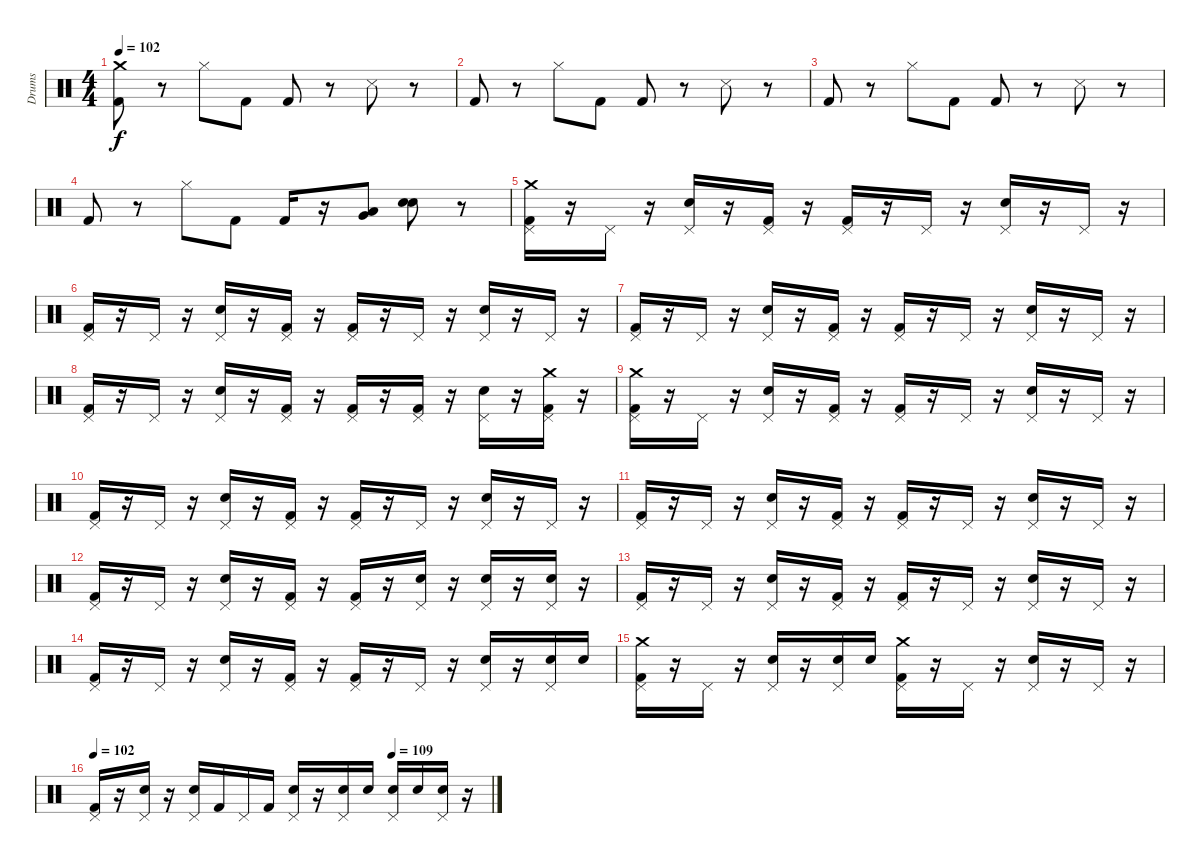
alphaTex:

\track ("Drums" "Drums") {instrument percussion}
\staff {score}
\articulation defaults
\ts (4 4)
\tempo 102
\clef neutral
\ks c
("Crash medium (hit)" "Kick (hit) 2").8{dy f} r.8 "Hi-Hat (closed)".8 "Kick (hit) 2".8 "Kick (hit) 2".8 r.8 "Snare (side stick) 3".8 r.8 |
"Kick (hit) 2".8 r.8 "Hi-Hat (closed)".8 "Kick (hit) 2".8 "Kick (hit) 2".8 r.8 "Snare (side stick) 3".8 r.8 |
"Kick (hit) 2".8 r.8 "Hi-Hat (closed)".8 "Kick (hit) 2".8 "Kick (hit) 2".8 r.8 "Snare (side stick) 3".8 r.8 |
"Kick (hit) 2".8 r.8 "Hi-Hat (closed)".8 "Kick (hit) 2".8 "Kick (hit) 2".16 r.16 ("Low Tom (hit)" "Very Low Tom (hit)").8 ("Electric Snare (hit)" "Snare (hit) 2").8 r.8 |
("Crash medium (hit)" "Pedal Hi-Hat (hit)" "Kick (hit) 2").16 r.16 "Pedal Hi-Hat (hit)".16 r.16 ("Pedal Hi-Hat (hit)" "Electric Snare (hit)").16 r.16 ("Kick (hit) 2" "Pedal Hi-Hat (hit)").16 r.16 ("Pedal Hi-Hat (hit)" "Kick (hit) 2").16 r.16 "Pedal Hi-Hat (hit)".16 r.16 ("Electric Snare (hit)" "Pedal Hi-Hat (hit)").16 r.16 "Pedal Hi-Hat (hit)".16 r.16 |
("Pedal Hi-Hat (hit)" "Kick (hit) 2").16 r.16 "Pedal Hi-Hat (hit)".16 r.16 ("Electric Snare (hit)" "Pedal Hi-Hat (hit)").16 r.16 ("Kick (hit) 2" "Pedal Hi-Hat (hit)").16 r.16 ("Kick (hit) 2" "Pedal Hi-Hat (hit)").16 r.16 "Pedal Hi-Hat (hit)".16 r.16 ("Pedal Hi-Hat (hit)" "Electric Snare (hit)").16 r.16 "Pedal Hi-Hat (hit)".16 r.16 |
("Kick (hit) 2" "Pedal Hi-Hat (hit)").16 r.16 "Pedal Hi-Hat (hit)".16 r.16 ("Pedal Hi-Hat (hit)" "Electric Snare (hit)").16 r.16 ("Pedal Hi-Hat (hit)" "Kick (hit) 2").16 r.16 ("Kick (hit) 2" "Pedal Hi-Hat (hit)").16 r.16 "Pedal Hi-Hat (hit)".16 r.16 ("Electric Snare (hit)" "Pedal Hi-Hat (hit)").16 r.16 "Pedal Hi-Hat (hit)".16 r.16 |
("Kick (hit) 2" "Pedal Hi-Hat (hit)").16 r.16 "Pedal Hi-Hat (hit)".16 r.16 ("Pedal Hi-Hat (hit)" "Electric Snare (hit)").16 r.16 ("Pedal Hi-Hat (hit)" "Kick (hit) 2").16 r.16 ("Pedal Hi-Hat (hit)" "Kick (hit) 2").16 r.16 ("Kick (hit) 2" "Pedal Hi-Hat (hit)").16 r.16 ("Pedal Hi-Hat (hit)" "Electric Snare (hit)").16 r.16 ("Crash medium (hit)" "Pedal Hi-Hat (hit)" "Kick (hit) 2").16 r.16 |
("Pedal Hi-Hat (hit)" "Kick (hit) 2" "Crash medium (hit)").16 r.16 "Pedal Hi-Hat (hit)".16 r.16 ("Electric Snare (hit)" "Pedal Hi-Hat (hit)").16 r.16 ("Kick (hit) 2" "Pedal Hi-Hat (hit)").16 r.16 ("Kick (hit) 2" "Pedal Hi-Hat (hit)").16 r.16 "Pedal Hi-Hat (hit)".16 r.16 ("Pedal Hi-Hat (hit)" "Electric Snare (hit)").16 r.16 "Pedal Hi-Hat (hit)".16 r.16 |
("Kick (hit) 2" "Pedal Hi-Hat (hit)").16 r.16 "Pedal Hi-Hat (hit)".16 r.16 ("Electric Snare (hit)" "Pedal Hi-Hat (hit)").16 r.16 ("Pedal Hi-Hat (hit)" "Kick (hit) 2").16 r.16 ("Pedal Hi-Hat (hit)" "Kick (hit) 2").16 r.16 "Pedal Hi-Hat (hit)".16 r.16 ("Electric Snare (hit)" "Pedal Hi-Hat (hit)").16 r.16 "Pedal Hi-Hat (hit)".16 r.16 |
("Pedal Hi-Hat (hit)" "Kick (hit) 2").16 r.16 "Pedal Hi-Hat (hit)".16 r.16 ("Electric Snare (hit)" "Pedal Hi-Hat (hit)").16 r.16 ("Kick (hit) 2" "Pedal Hi-Hat (hit)").16 r.16 ("Kick (hit) 2" "Pedal Hi-Hat (hit)").16 r.16 "Pedal Hi-Hat (hit)".16 r.16 ("Pedal Hi-Hat (hit)" "Electric Snare (hit)").16 r.16 "Pedal Hi-Hat (hit)".16 r.16 |
("Kick (hit) 2" "Pedal Hi-Hat (hit)").16 r.16 "Pedal Hi-Hat (hit)".16 r.16 ("Pedal Hi-Hat (hit)" "Electric Snare (hit)").16 r.16 ("Kick (hit) 2" "Pedal Hi-Hat (hit)").16 r.16 ("Kick (hit) 2" "Pedal Hi-Hat (hit)").16 r.16 ("Electric Snare (hit)" "Pedal Hi-Hat (hit)").16 r.16 ("Electric Snare (hit)" "Pedal Hi-Hat (hit)").16 r.16 ("Pedal Hi-Hat (hit)" "Electric Snare (hit)").16 r.16 |
("Kick (hit) 2" "Pedal Hi-Hat (hit)").16 r.16 "Pedal Hi-Hat (hit)".16 r.16 ("Pedal Hi-Hat (hit)" "Electric Snare (hit)").16 r.16 ("Pedal Hi-Hat (hit)" "Kick (hit) 2").16 r.16 ("Pedal Hi-Hat (hit)" "Kick (hit) 2").16 r.16 "Pedal Hi-Hat (hit)".16 r.16 ("Electric Snare (hit)" "Pedal Hi-Hat (hit)").16 r.16 "Pedal Hi-Hat (hit)".16 r.16 |
("Pedal Hi-Hat (hit)" "Kick (hit) 2").16 r.16 "Pedal Hi-Hat (hit)".16 r.16 ("Electric Snare (hit)" "Pedal Hi-Hat (hit)").16 r.16 ("Kick (hit) 2" "Pedal Hi-Hat (hit)").16 r.16 ("Kick (hit) 2" "Pedal Hi-Hat (hit)").16 r.16 "Pedal Hi-Hat (hit)".16 r.16 ("Pedal Hi-Hat (hit)" "Electric Snare (hit)").16 r.16 ("Pedal Hi-Hat (hit)" "Electric Snare (hit)").16 "Electric Snare (hit)".16 |
("Pedal Hi-Hat (hit)" "Crash medium (hit)" "Kick (hit) 2").16 r.16 "Pedal Hi-Hat (hit)".16 r.16 ("Electric Snare (hit)" "Pedal Hi-Hat (hit)").16 r.16 ("Pedal Hi-Hat (hit)" "Electric Snare (hit)").16 "Electric Snare (hit)".16 ("Pedal Hi-Hat (hit)" "Crash medium (hit)" "Kick (hit) 2").16 r.16 "Pedal Hi-Hat (hit)".16 r.16 ("Pedal Hi-Hat (hit)" "Electric Snare (hit)").16 r.16 "Pedal Hi-Hat (hit)".16 r.16 |
\tempo 102
\tempo (109 0.75)
("Kick (hit) 2" "Pedal Hi-Hat (hit)").16 r.16 ("Pedal Hi-Hat (hit)" "Electric Snare (hit)").16 r.16 ("Electric Snare (hit)" "Pedal Hi-Hat (hit)").16 "Kick (hit) 2".16 "Pedal Hi-Hat (hit)".16 "Kick (hit) 2".16 ("Electric Snare (hit)" "Pedal Hi-Hat (hit)").16 r.16 ("Electric Snare (hit)" "Pedal Hi-Hat (hit)").16 "Electric Snare (hit)".16 ("Pedal Hi-Hat (hit)" "Electric Snare (hit)").16 "Electric Snare (hit)".16 ("Electric Snare (hit)" "Pedal Hi-Hat (hit)").16 r.16
